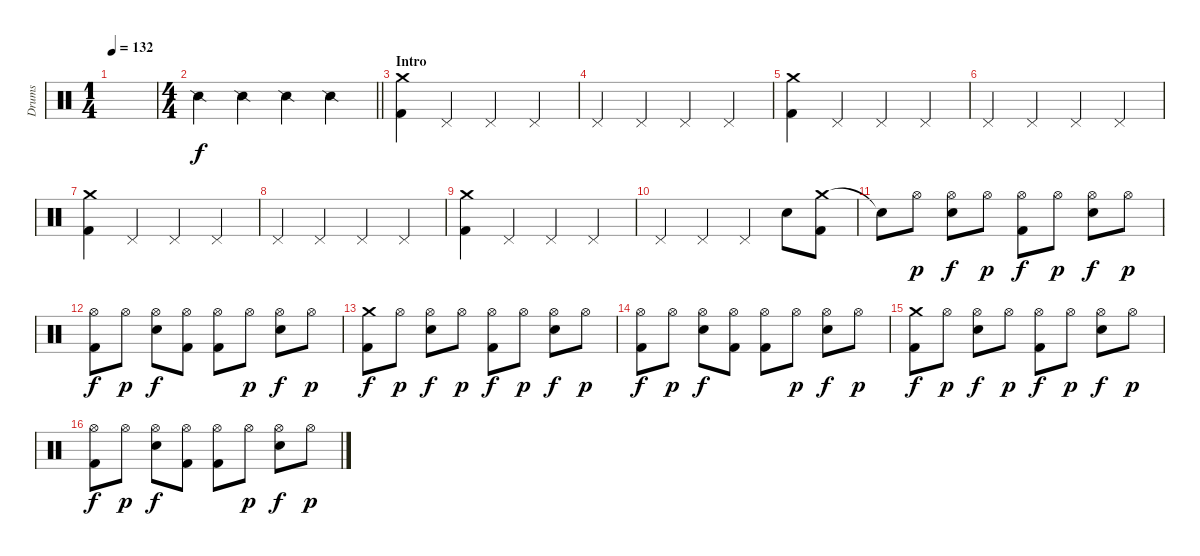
\track ("Drums" "Drums") {instrument percussion}
\staff {score}
\articulation defaults
\ts (1 4)
\tempo 132
\clef neutral
\ks c
|
\ts (4 4)
\barLineRight lightlight "Snare (side stick) 2".4 "Snare (side stick) 2".4 "Snare (side stick) 2".4 "Snare (side stick) 2".4
|
\section ("" "Intro")
("Crash medium (hit)" "Kick (hit) 2").4 "Pedal Hi-Hat (hit)".4 "Pedal Hi-Hat (hit)".4 "Pedal Hi-Hat (hit)".4 |
"Pedal Hi-Hat (hit)".4 "Pedal Hi-Hat (hit)".4 "Pedal Hi-Hat (hit)".4 "Pedal Hi-Hat (hit)".4 |
("Crash medium (hit)" "Kick (hit) 2").4 "Pedal Hi-Hat (hit)".4 "Pedal Hi-Hat (hit)".4 "Pedal Hi-Hat (hit)".4 |
"Pedal Hi-Hat (hit)".4 "Pedal Hi-Hat (hit)".4 "Pedal Hi-Hat (hit)".4 "Pedal Hi-Hat (hit)".4 |
("Crash medium (hit)" "Kick (hit) 2").4 "Pedal Hi-Hat (hit)".4 "Pedal Hi-Hat (hit)".4 "Pedal Hi-Hat (hit)".4 |
"Pedal Hi-Hat (hit)".4 "Pedal Hi-Hat (hit)".4 "Pedal Hi-Hat (hit)".4 "Pedal Hi-Hat (hit)".4 |
("Crash medium (hit)" "Kick (hit) 2").4 "Pedal Hi-Hat (hit)".4 "Pedal Hi-Hat (hit)".4 "Pedal Hi-Hat (hit)".4 |
"Pedal Hi-Hat (hit)".4 "Pedal Hi-Hat (hit)".4 "Pedal Hi-Hat (hit)".4 "Snare (hit) 2".8 ("Crash medium (hit)" "Kick (hit) 2").8 |
"Snare (hit)"{t}.8 "Hi-Hat (open)".8{dy p} ("Hi-Hat (open)" "Snare (hit) 2").8{dy f} "Hi-Hat (open)".8{dy p} ("Hi-Hat (open)" "Kick (hit) 2").8{dy f} "Hi-Hat (open)".8{dy p} ("Hi-Hat (open)" "Snare (hit) 2").8{dy f} "Hi-Hat (open)".8{dy p} |
("Hi-Hat (open)" "Kick (hit) 2").8{dy f} "Hi-Hat (open)".8{dy p} ("Hi-Hat (open)" "Snare (hit) 2").8{dy f} ("Hi-Hat (open)" "Kick (hit) 2").8 ("Hi-Hat (open)" "Kick (hit) 2").8 "Hi-Hat (open)".8{dy p} ("Hi-Hat (open)" "Snare (hit) 2").8{dy f} "Hi-Hat (open)".8{dy p} |
("Crash medium (hit)" "Kick (hit) 2").8{dy f} "Hi-Hat (open)".8{dy p} ("Hi-Hat (open)" "Snare (hit) 2").8{dy f} "Hi-Hat (open)".8{dy p} ("Hi-Hat (open)" "Kick (hit) 2").8{dy f} "Hi-Hat (open)".8{dy p} ("Hi-Hat (open)" "Snare (hit) 2").8{dy f} "Hi-Hat (open)".8{dy p} |
("Hi-Hat (open)" "Kick (hit) 2").8{dy f} "Hi-Hat (open)".8{dy p} ("Hi-Hat (open)" "Snare (hit) 2").8{dy f} ("Hi-Hat (open)" "Kick (hit) 2").8 ("Hi-Hat (open)" "Kick (hit) 2").8 "Hi-Hat (open)".8{dy p} ("Hi-Hat (open)" "Snare (hit) 2").8{dy f} "Hi-Hat (open)".8{dy p} |
("Crash medium (hit)" "Kick (hit) 2").8{dy f} "Hi-Hat (open)".8{dy p} ("Hi-Hat (open)" "Snare (hit) 2").8{dy f} "Hi-Hat (open)".8{dy p} ("Hi-Hat (open)" "Kick (hit) 2").8{dy f} "Hi-Hat (open)".8{dy p} ("Hi-Hat (open)" "Snare (hit) 2").8{dy f} "Hi-Hat (open)".8{dy p} |
("Hi-Hat (open)" "Kick (hit) 2").8{dy f} "Hi-Hat (open)".8{dy p} ("Hi-Hat (open)" "Snare (hit) 2").8{dy f} ("Hi-Hat (open)" "Kick (hit) 2").8 ("Hi-Hat (open)" "Kick (hit) 2").8 "Hi-Hat (open)".8{dy p} ("Hi-Hat (open)" "Snare (hit) 2").8{dy f} "Hi-Hat (open)".8{dy p}
